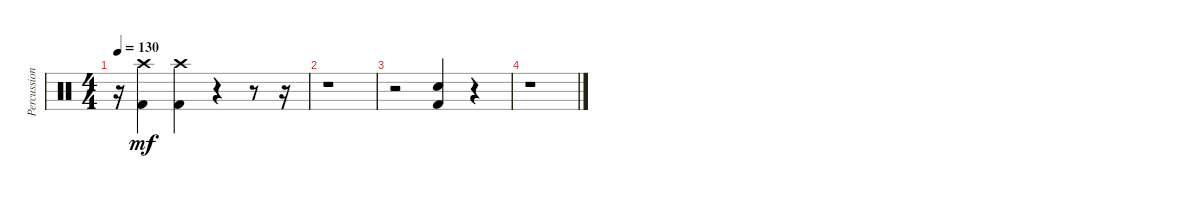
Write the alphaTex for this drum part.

\track ("Percussion" "Percussion") {instrument percussion}
\staff {score}
\articulation defaults
\ts (4 4)
\tempo 130
\clef neutral
\ks c
r.16{dy p} ("Kick (hit) 2" "Crash high (hit)").4{dy mf} ("Kick (hit) 2" "Crash high (hit)").4 r.4 r.8 r.16 |
r.1 |
r.2 ("Electric Snare (hit)" "Kick (hit) 2").4 r.4 |
r.1
